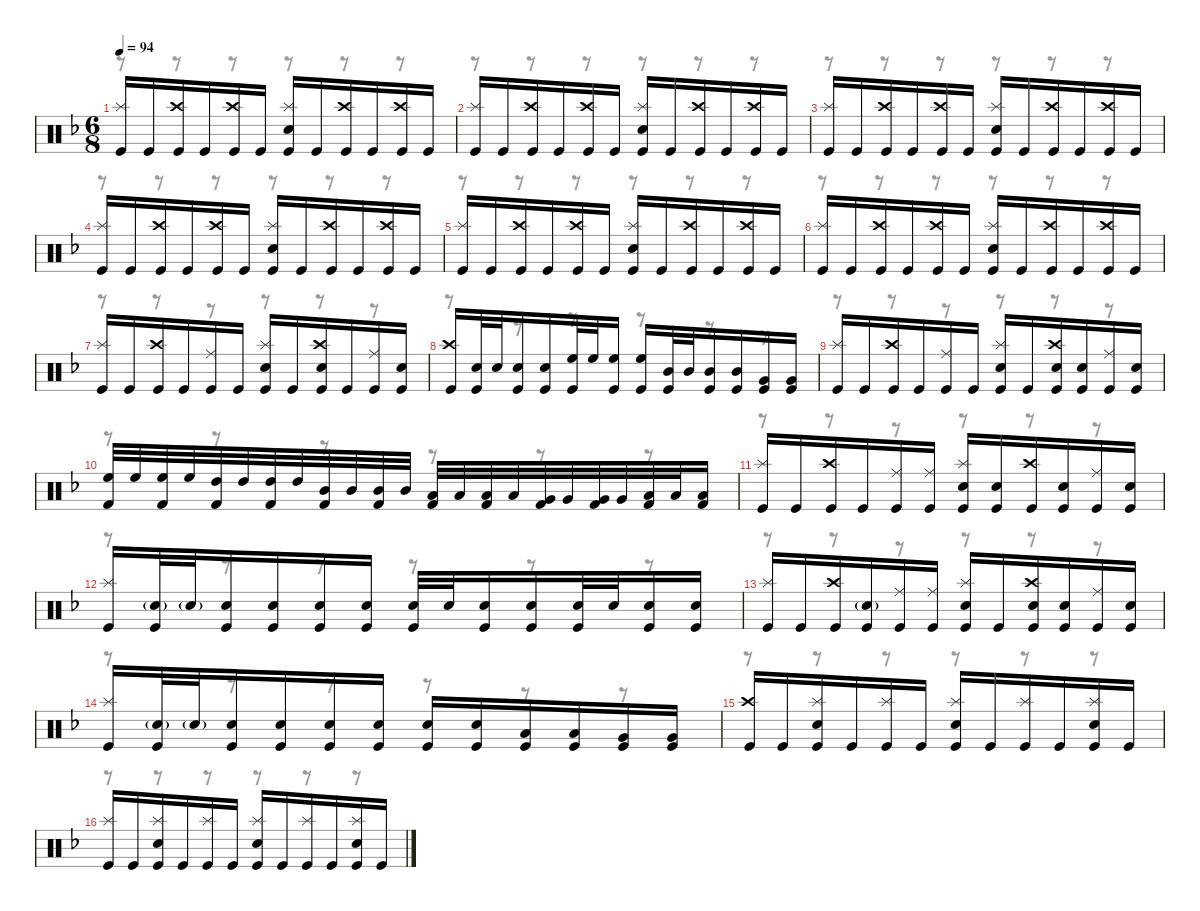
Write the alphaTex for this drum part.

\defaultSystemsLayout 4
\hideDynamics
\bracketExtendMode nobrackets
\singleTrackTrackNamePolicy hidden
\multiTrackTrackNamePolicy hidden
\otherSystemsTrackNameOrientation horizontal
\track ("M. Lopez" "drm.") {instrument percussion}
\staff {score}
\articulation defaults
\voice
\ts (6 8)
\tempo 94
\clef neutral
\ks dminor
("Splash (hit)"{acc forcenatural} "Kick (hit)"{acc forcenatural}).16{dy f beam Up} "Kick (hit)"{acc forcenatural}.16{beam Up} ("Crash high (hit)"{acc forcenatural} "Kick (hit)"{acc forcenatural}).16{beam Up} "Kick (hit)"{acc forcenatural}.16{beam Up} ("Crash high (hit)"{acc forcenatural} "Kick (hit)"{acc forcenatural}).16{beam Up} "Kick (hit)"{acc forcenatural}.16{beam Up} ("Splash (hit)"{acc forcenatural} "Snare (hit) 2"{acc forcenatural} "Kick (hit)"{acc forcenatural}).16{beam Up} "Kick (hit)"{acc forcenatural}.16{beam Up} ("Crash high (hit)"{acc forcenatural} "Kick (hit)"{acc forcenatural}).16{beam Up} "Kick (hit)"{acc forcenatural}.16{beam Up} ("Crash high (hit)"{acc forcenatural} "Kick (hit)"{acc forcenatural}).16{beam Up} "Kick (hit)"{acc forcenatural}.16{beam Up} |
("Splash (hit)"{acc forcenatural} "Kick (hit)"{acc forcenatural}).16{beam Up} "Kick (hit)"{acc forcenatural}.16{beam Up} ("Crash high (hit)"{acc forcenatural} "Kick (hit)"{acc forcenatural}).16{beam Up} "Kick (hit)"{acc forcenatural}.16{beam Up} ("Crash high (hit)"{acc forcenatural} "Kick (hit)"{acc forcenatural}).16{beam Up} "Kick (hit)"{acc forcenatural}.16{beam Up} ("Splash (hit)"{acc forcenatural} "Snare (hit) 2"{acc forcenatural} "Kick (hit)"{acc forcenatural}).16{beam Up} "Kick (hit)"{acc forcenatural}.16{beam Up} ("Crash high (hit)"{acc forcenatural} "Kick (hit)"{acc forcenatural}).16{beam Up} "Kick (hit)"{acc forcenatural}.16{beam Up} ("Crash high (hit)"{acc forcenatural} "Kick (hit)"{acc forcenatural}).16{beam Up} "Kick (hit)"{acc forcenatural}.16{beam Up} |
("Splash (hit)"{acc forcenatural} "Kick (hit)"{acc forcenatural}).16{beam Up} "Kick (hit)"{acc forcenatural}.16{beam Up} ("Crash high (hit)"{acc forcenatural} "Kick (hit)"{acc forcenatural}).16{beam Up} "Kick (hit)"{acc forcenatural}.16{beam Up} ("Crash high (hit)"{acc forcenatural} "Kick (hit)"{acc forcenatural}).16{beam Up} "Kick (hit)"{acc forcenatural}.16{beam Up} ("Splash (hit)"{acc forcenatural} "Snare (hit) 2"{acc forcenatural} "Kick (hit)"{acc forcenatural}).16{beam Up} "Kick (hit)"{acc forcenatural}.16{beam Up} ("Crash high (hit)"{acc forcenatural} "Kick (hit)"{acc forcenatural}).16{beam Up} "Kick (hit)"{acc forcenatural}.16{beam Up} ("Crash high (hit)"{acc forcenatural} "Kick (hit)"{acc forcenatural}).16{beam Up} "Kick (hit)"{acc forcenatural}.16{beam Up} |
("Splash (hit)"{acc forcenatural} "Kick (hit)"{acc forcenatural}).16{beam Up} "Kick (hit)"{acc forcenatural}.16{beam Up} ("Crash high (hit)"{acc forcenatural} "Kick (hit)"{acc forcenatural}).16{beam Up} "Kick (hit)"{acc forcenatural}.16{beam Up} ("Crash high (hit)"{acc forcenatural} "Kick (hit)"{acc forcenatural}).16{beam Up} "Kick (hit)"{acc forcenatural}.16{beam Up} ("Splash (hit)"{acc forcenatural} "Snare (hit) 2"{acc forcenatural} "Kick (hit)"{acc forcenatural}).16{beam Up} "Kick (hit)"{acc forcenatural}.16{beam Up} ("Crash high (hit)"{acc forcenatural} "Kick (hit)"{acc forcenatural}).16{beam Up} "Kick (hit)"{acc forcenatural}.16{beam Up} ("Crash high (hit)"{acc forcenatural} "Kick (hit)"{acc forcenatural}).16{beam Up} "Kick (hit)"{acc forcenatural}.16{beam Up} |
("Splash (hit)"{acc forcenatural} "Kick (hit)"{acc forcenatural}).16{beam Up} "Kick (hit)"{acc forcenatural}.16{beam Up} ("Crash high (hit)"{acc forcenatural} "Kick (hit)"{acc forcenatural}).16{beam Up} "Kick (hit)"{acc forcenatural}.16{beam Up} ("Crash high (hit)"{acc forcenatural} "Kick (hit)"{acc forcenatural}).16{beam Up} "Kick (hit)"{acc forcenatural}.16{beam Up} ("Splash (hit)"{acc forcenatural} "Snare (hit) 2"{acc forcenatural} "Kick (hit)"{acc forcenatural}).16{beam Up} "Kick (hit)"{acc forcenatural}.16{beam Up} ("Crash high (hit)"{acc forcenatural} "Kick (hit)"{acc forcenatural}).16{beam Up} "Kick (hit)"{acc forcenatural}.16{beam Up} ("Crash high (hit)"{acc forcenatural} "Kick (hit)"{acc forcenatural}).16{beam Up} "Kick (hit)"{acc forcenatural}.16{beam Up} |
("Splash (hit)"{acc forcenatural} "Kick (hit)"{acc forcenatural}).16{beam Up} "Kick (hit)"{acc forcenatural}.16{beam Up} ("Crash high (hit)"{acc forcenatural} "Kick (hit)"{acc forcenatural}).16{beam Up} "Kick (hit)"{acc forcenatural}.16{beam Up} ("Crash high (hit)"{acc forcenatural} "Kick (hit)"{acc forcenatural}).16{beam Up} "Kick (hit)"{acc forcenatural}.16{beam Up} ("Splash (hit)"{acc forcenatural} "Snare (hit) 2"{acc forcenatural} "Kick (hit)"{acc forcenatural}).16{beam Up} "Kick (hit)"{acc forcenatural}.16{beam Up} ("Crash high (hit)"{acc forcenatural} "Kick (hit)"{acc forcenatural}).16{beam Up} "Kick (hit)"{acc forcenatural}.16{beam Up} ("Crash high (hit)"{acc forcenatural} "Kick (hit)"{acc forcenatural}).16{beam Up} "Kick (hit)"{acc forcenatural}.16{beam Up} |
("Splash (hit)"{acc forcenatural} "Kick (hit)"{acc forcenatural}).16{beam Up} "Kick (hit)"{acc forcenatural}.16{beam Up} ("Crash high (hit)"{acc forcenatural} "Kick (hit)"{acc forcenatural}).16{beam Up} "Kick (hit)"{acc forcenatural}.16{beam Up} ("Ride (middle)"{acc forcenatural} "Kick (hit)"{acc forcenatural}).16{dy ff beam Up} "Kick (hit)"{acc forcenatural}.16{dy f beam Up} ("Splash (hit)"{acc forcenatural} "Snare (hit) 2"{acc forcenatural} "Kick (hit)"{acc forcenatural}).16{beam Up} "Kick (hit)"{acc forcenatural}.16{beam Up} ("Crash high (hit)"{acc forcenatural} "Snare (hit) 2"{acc forcenatural} "Kick (hit)"{acc forcenatural}).16{beam Up} "Kick (hit)"{acc forcenatural}.16{beam Up} ("Ride (middle)"{acc forcenatural} "Kick (hit)"{acc forcenatural}).16{dy ff beam Up} ("Snare (hit) 2"{acc forcenatural} "Kick (hit)"{acc forcenatural}).16{beam Up} |
("Crash high (hit)"{acc forcenatural} "Kick (hit)"{acc forcenatural}).16{dy f beam Up} ("Snare (hit) 2"{acc forcenatural} "Kick (hit)"{acc forcenatural}).32{beam Up} "Snare (hit) 2"{acc forcenatural}.32{beam Up} ("Snare (hit) 2"{acc forcenatural} "Kick (hit)"{acc forcenatural}).16{beam Up} ("Snare (hit) 2"{acc forcenatural} "Kick (hit)"{acc forcenatural}).16{beam Up} ("High Floor Tom (hit)"{acc forcenatural} "Kick (hit)"{acc forcenatural}).32{beam Up} "High Floor Tom (hit)"{acc forcenatural}.32{beam Up} ("High Floor Tom (hit)"{acc forcenatural} "Kick (hit)"{acc forcenatural}).16{beam Up} ("High Floor Tom (hit)"{acc forcenatural} "Kick (hit)"{acc forcenatural}).16{beam Up} ("Mid Tom (hit)"{acc forcenatural} "Kick (hit)"{acc forcenatural}).32{beam Up} "Mid Tom (hit)"{acc forcenatural}.32{beam Up} ("Mid Tom (hit)"{acc forcenatural} "Kick (hit)"{acc forcenatural}).16{beam Up} ("Mid Tom (hit)"{acc forcenatural} "Kick (hit)"{acc forcenatural}).16{beam Up} ("Very Low Tom (hit)"{acc forcenatural} "Kick (hit)"{acc forcenatural}).16{beam Up} ("Very Low Tom (hit)"{acc forcenatural} "Kick (hit)"{acc forcenatural}).16{beam Up} |
("Splash (hit)"{acc forcenatural} "Kick (hit)"{acc forcenatural}).16{beam Up} "Kick (hit)"{acc forcenatural}.16{beam Up} ("Crash high (hit)"{acc forcenatural} "Kick (hit)"{acc forcenatural}).16{beam Up} "Kick (hit)"{acc forcenatural}.16{beam Up} ("Ride (middle)"{acc forcenatural} "Kick (hit)"{acc forcenatural}).16{dy ff beam Up} "Kick (hit)"{acc forcenatural}.16{dy f beam Up} ("Splash (hit)"{acc forcenatural} "Snare (hit) 2"{acc forcenatural} "Kick (hit)"{acc forcenatural}).16{beam Up} "Kick (hit)"{acc forcenatural}.16{beam Up} ("Crash high (hit)"{acc forcenatural} "Snare (hit) 2"{acc forcenatural} "Kick (hit)"{acc forcenatural}).16{beam Up} ("Snare (hit) 2"{acc forcenatural} "Kick (hit)"{acc forcenatural}).16{beam Up} ("Ride (middle)"{acc forcenatural} "Kick (hit)"{acc forcenatural}).16{dy ff beam Up} ("Snare (hit) 2"{acc forcenatural} "Kick (hit)"{acc forcenatural}).16{beam Up} |
("High Floor Tom (hit)"{acc forcenatural} "Kick (hit) 2"{acc forcenatural}).32{dy f beam Up} "High Floor Tom (hit)"{acc forcenatural}.32{beam Up} ("High Floor Tom (hit)"{acc forcenatural} "Kick (hit) 2"{acc forcenatural}).32{beam Up} "High Floor Tom (hit)"{acc forcenatural}.32{beam Up} ("High Tom (hit)"{acc forcenatural} "Kick (hit) 2"{acc forcenatural}).32{beam Up} "High Tom (hit)"{acc forcenatural}.32{beam Up} ("High Tom (hit)"{acc forcenatural} "Kick (hit) 2"{acc forcenatural}).32{beam Up} "High Tom (hit)"{acc forcenatural}.32{beam Up} ("Mid Tom (hit)"{acc forcenatural} "Kick (hit) 2"{acc forcenatural}).32{beam Up} "Mid Tom (hit)"{acc forcenatural}.32{beam Up} ("Mid Tom (hit)"{acc forcenatural} "Kick (hit) 2"{acc forcenatural}).32{beam Up} "Mid Tom (hit)"{acc forcenatural}.32{beam Up} ("Low Tom (hit)"{acc forcenatural} "Kick (hit) 2"{acc forcenatural}).32{beam Up} "Low Tom (hit)"{acc forcenatural}.32{beam Up} ("Low Tom (hit)"{acc forcenatural} "Kick (hit) 2"{acc forcenatural}).32{beam Up} "Low Tom (hit)"{acc forcenatural}.32{beam Up} ("Very Low Tom (hit)"{acc forcenatural} "Kick (hit) 2"{acc forcenatural}).32{beam Up} "Very Low Tom (hit)"{acc forcenatural}.32{beam Up} ("Very Low Tom (hit)"{acc forcenatural} "Kick (hit) 2"{acc forcenatural}).32{beam Up} "Very Low Tom (hit)"{acc forcenatural}.32{beam Up} ("Low Floor Tom (hit)"{acc forcenatural} "Kick (hit) 2"{acc forcenatural}).32{beam Up} "Low Floor Tom (hit)"{acc forcenatural}.32{beam Up} ("Low Floor Tom (hit)"{acc forcenatural} "Kick (hit) 2"{acc forcenatural}).16{beam Up} |
("Splash (hit)"{acc forcenatural} "Kick (hit)"{acc forcenatural}).16{beam Up} "Kick (hit)"{acc forcenatural}.16{beam Up} ("Crash high (hit)"{acc forcenatural} "Kick (hit)"{acc forcenatural}).16{beam Up} "Kick (hit)"{acc forcenatural}.16{beam Up} ("Ride (middle)"{acc forcenatural} "Kick (hit)"{acc forcenatural}).16{dy ff beam Up} ("Ride (middle)"{acc forcenatural} "Kick (hit)"{acc forcenatural}).16{dy f beam Up} ("Splash (hit)"{acc forcenatural} "Snare (hit) 2"{acc forcenatural} "Kick (hit)"{acc forcenatural}).16{beam Up} ("Snare (hit) 2"{acc forcenatural} "Kick (hit)"{acc forcenatural}).16{beam Up} ("Crash high (hit)"{acc forcenatural} "Kick (hit)"{acc forcenatural}).16{beam Up} ("Snare (hit) 2"{acc forcenatural} "Kick (hit)"{acc forcenatural}).16{beam Up} ("Ride (middle)"{acc forcenatural} "Kick (hit)"{acc forcenatural}).16{dy ff beam Up} ("Snare (hit) 2"{acc forcenatural} "Kick (hit)"{acc forcenatural}).16{beam Up} |
("Splash (hit)"{acc forcenatural} "Kick (hit)"{acc forcenatural}).16{dy f beam Up} ("Snare (hit) 2"{g acc forcenatural} "Kick (hit)"{acc forcenatural}).32{beam Up} "Snare (hit) 2"{g acc forcenatural}.32{dy ff beam Up} ("Snare (hit) 2"{acc forcenatural} "Kick (hit)"{acc forcenatural}).16{dy f beam Up} ("Snare (hit) 2"{acc forcenatural} "Kick (hit)"{acc forcenatural}).16{beam Up} ("Snare (hit) 2"{acc forcenatural} "Kick (hit)"{acc forcenatural}).16{beam Up} ("Snare (hit) 2"{acc forcenatural} "Kick (hit)"{acc forcenatural}).16{beam Up} ("Snare (hit) 2"{acc forcenatural} "Kick (hit)"{acc forcenatural}).32{beam Up} "Snare (hit) 2"{acc forcenatural}.32{beam Up} ("Snare (hit) 2"{acc forcenatural} "Kick (hit)"{acc forcenatural}).16{beam Up} ("Snare (hit) 2"{acc forcenatural} "Kick (hit)"{acc forcenatural}).16{beam Up} ("Snare (hit) 2"{acc forcenatural} "Kick (hit)"{acc forcenatural}).32{beam Up} "Snare (hit) 2"{acc forcenatural}.32{beam Up} ("Snare (hit) 2"{acc forcenatural} "Kick (hit)"{acc forcenatural}).16{beam Up} ("Snare (hit) 2"{acc forcenatural} "Kick (hit)"{acc forcenatural}).16{beam Up} |
("Splash (hit)"{acc forcenatural} "Kick (hit)"{acc forcenatural}).16{beam Up} "Kick (hit)"{acc forcenatural}.16{beam Up} ("Crash high (hit)"{acc forcenatural} "Kick (hit)"{acc forcenatural}).16{beam Up} ("Snare (hit) 2"{g acc forcenatural} "Kick (hit)"{acc forcenatural}).16{beam Up} ("Ride (middle)"{acc forcenatural} "Kick (hit)"{acc forcenatural}).16{dy ff beam Up} ("Ride (middle)"{acc forcenatural} "Kick (hit)"{acc forcenatural}).16{dy f beam Up} ("Splash (hit)"{acc forcenatural} "Snare (hit) 2"{acc forcenatural} "Kick (hit)"{acc forcenatural}).16{beam Up} "Kick (hit)"{acc forcenatural}.16{beam Up} ("Crash high (hit)"{acc forcenatural} "Snare (hit) 2"{acc forcenatural} "Kick (hit)"{acc forcenatural}).16{beam Up} ("Snare (hit) 2"{acc forcenatural} "Kick (hit)"{acc forcenatural}).16{beam Up} ("Ride (middle)"{acc forcenatural} "Kick (hit)"{acc forcenatural}).16{dy ff beam Up} ("Snare (hit) 2"{acc forcenatural} "Kick (hit)"{acc forcenatural}).16{beam Up} |
("Splash (hit)"{acc forcenatural} "Kick (hit)"{acc forcenatural}).16{dy f beam Up} ("Snare (hit) 2"{g acc forcenatural} "Kick (hit)"{acc forcenatural}).32{beam Up} "Snare (hit) 2"{g acc forcenatural}.32{dy ff beam Up} ("Snare (hit) 2"{acc forcenatural} "Kick (hit)"{acc forcenatural}).16{dy f beam Up} ("Snare (hit) 2"{acc forcenatural} "Kick (hit)"{acc forcenatural}).16{beam Up} ("Snare (hit) 2"{acc forcenatural} "Kick (hit)"{acc forcenatural}).16{beam Up} ("Snare (hit) 2"{acc forcenatural} "Kick (hit)"{acc forcenatural}).16{beam Up} ("Snare (hit) 2"{acc forcenatural} "Kick (hit)"{acc forcenatural}).16{beam Up} ("Snare (hit) 2"{acc forcenatural} "Kick (hit)"{acc forcenatural}).16{beam Up} ("Low Tom (hit)"{acc forcenatural} "Kick (hit)"{acc forcenatural}).16{beam Up} ("Low Tom (hit)"{acc forcenatural} "Kick (hit)"{acc forcenatural}).16{beam Up} ("Very Low Tom (hit)"{acc forcenatural} "Kick (hit)"{acc forcenatural}).16{beam Up} ("Very Low Tom (hit)"{acc forcenatural} "Kick (hit)"{acc forcenatural}).16{beam Up} |
("Crash high (hit)"{acc forcenatural} "Kick (hit)"{acc forcenatural}).16{beam Up} "Kick (hit)"{acc forcenatural}.16{beam Up} ("Splash (hit)"{acc forcenatural} "Snare (hit) 2"{acc forcenatural} "Kick (hit)"{acc forcenatural}).16{dy mf beam Up} "Kick (hit)"{acc forcenatural}.16{dy f beam Up} ("Splash (hit)"{acc forcenatural} "Kick (hit)"{acc forcenatural}).16{dy mf beam Up} "Kick (hit)"{acc forcenatural}.16{dy f beam Up} ("Splash (hit)"{acc forcenatural} "Snare (hit) 2"{acc forcenatural} "Kick (hit)"{acc forcenatural}).16{dy mf beam Up} "Kick (hit)"{acc forcenatural}.16{dy f beam Up} ("Splash (hit)"{acc forcenatural} "Kick (hit)"{acc forcenatural}).16{dy mf beam Up} "Kick (hit)"{acc forcenatural}.16{dy f beam Up} ("Splash (hit)"{acc forcenatural} "Snare (hit) 2"{acc forcenatural} "Kick (hit)"{acc forcenatural}).16{dy mf beam Up} "Kick (hit)"{acc forcenatural}.16{dy f beam Up} |
("Splash (hit)"{acc forcenatural} "Kick (hit)"{acc forcenatural}).16{dy mf beam Up} "Kick (hit)"{acc forcenatural}.16{dy f beam Up} ("Splash (hit)"{acc forcenatural} "Snare (hit) 2"{acc forcenatural} "Kick (hit)"{acc forcenatural}).16{dy mf beam Up} "Kick (hit)"{acc forcenatural}.16{dy f beam Up} ("Splash (hit)"{acc forcenatural} "Kick (hit)"{acc forcenatural}).16{dy mf beam Up} "Kick (hit)"{acc forcenatural}.16{dy f beam Up} ("Splash (hit)"{acc forcenatural} "Snare (hit) 2"{acc forcenatural} "Kick (hit)"{acc forcenatural}).16{dy mf beam Up} "Kick (hit)"{acc forcenatural}.16{dy f beam Up} ("Splash (hit)"{acc forcenatural} "Kick (hit)"{acc forcenatural}).16{dy mf beam Up} "Kick (hit)"{acc forcenatural}.16{dy f beam Up} ("Splash (hit)"{acc forcenatural} "Snare (hit) 2"{acc forcenatural} "Kick (hit)"{acc forcenatural}).16{dy mf beam Up} "Kick (hit)"{acc forcenatural}.16{dy f beam Up}
\voice
\clef neutral
\ottava regular
\simile none
\ks dminor
r.8{dy mf beam Down} r.8{beam Down} r.8{beam Down} r.8{beam Down} r.8{beam Down} r.8{beam Down} |
r.8{beam Down} r.8{beam Down} r.8{beam Down} r.8{beam Down} r.8{beam Down} r.8{beam Down} |
r.8{beam Down} r.8{beam Down} r.8{beam Down} r.8{beam Down} r.8{beam Down} r.8{beam Down} |
r.8{beam Down} r.8{beam Down} r.8{beam Down} r.8{beam Down} r.8{beam Down} r.8{beam Down} |
r.8{beam Down} r.8{beam Down} r.8{beam Down} r.8{beam Down} r.8{beam Down} r.8{beam Down} |
r.8{beam Down} r.8{beam Down} r.8{beam Down} r.8{beam Down} r.8{beam Down} r.8{beam Down} |
r.8{beam Down} r.8{beam Down} r.8{beam Down} r.8{beam Down} r.8{beam Down} r.8{beam Down} |
r.8{beam Down} r.8{beam Down} r.8{beam Down} r.8{beam Down} r.8{beam Down} r.8{beam Down} |
r.8{beam Down} r.8{beam Down} r.8{beam Down} r.8{beam Down} r.8{beam Down} r.8{beam Down} |
r.8{beam Down} r.8{beam Down} r.8{beam Down} r.8{beam Down} r.8{beam Down} r.8{beam Down} |
r.8{beam Down} r.8{beam Down} r.8{beam Down} r.8{beam Down} r.8{beam Down} r.8{beam Down} |
r.8{beam Down} r.8{beam Down} r.8{beam Down} r.8{beam Down} r.8{beam Down} r.8{beam Down} |
r.8{beam Down} r.8{beam Down} r.8{beam Down} r.8{beam Down} r.8{beam Down} r.8{beam Down} |
r.8{beam Down} r.8{beam Down} r.8{beam Down} r.8{beam Down} r.8{beam Down} r.8{beam Down} |
r.8{beam Down} r.8{beam Down} r.8{beam Down} r.8{beam Down} r.8{beam Down} r.8{beam Down} |
r.8{beam Down} r.8{beam Down} r.8{beam Down} r.8{beam Down} r.8{beam Down} r.8{beam Down}
